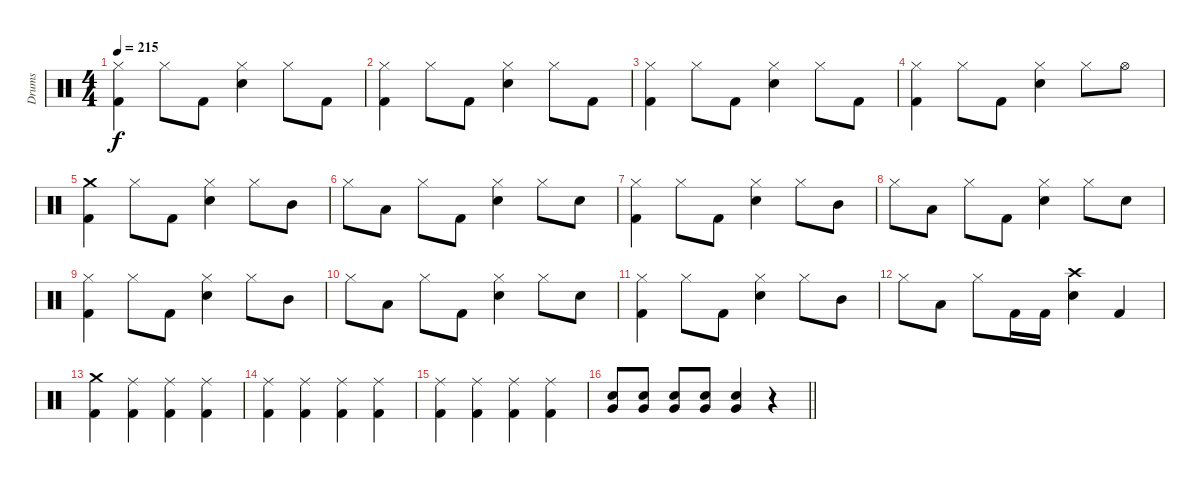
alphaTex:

\track ("Drums" "Drums") {instrument percussion}
\staff {score}
\articulation defaults
\ts (4 4)
\tempo 215
\clef neutral
\ks c
("Hi-Hat (closed)" "Kick (hit) 2").4{dy f} "Hi-Hat (closed)".8 "Kick (hit) 2".8 ("Hi-Hat (closed)" "Electric Snare (hit)").4 "Hi-Hat (closed)".8 "Kick (hit) 2".8 |
("Hi-Hat (closed)" "Kick (hit) 2").4 "Hi-Hat (closed)".8 "Kick (hit) 2".8 ("Hi-Hat (closed)" "Electric Snare (hit)").4 "Hi-Hat (closed)".8 "Kick (hit) 2".8 |
("Hi-Hat (closed)" "Kick (hit) 2").4 "Hi-Hat (closed)".8 "Kick (hit) 2".8 ("Hi-Hat (closed)" "Electric Snare (hit)").4 "Hi-Hat (closed)".8 "Kick (hit) 2".8 |
("Hi-Hat (closed)" "Kick (hit) 2").4 "Hi-Hat (closed)".8 "Kick (hit) 2".8 ("Hi-Hat (closed)" "Electric Snare (hit)").4 "Hi-Hat (closed)".8 "Hi-Hat (open)".8{volume 12 balance 8} |
("Crash medium (hit)" "Kick (hit) 2").4 "Hi-Hat (closed)".8 "Kick (hit) 2".8 ("Hi-Hat (closed)" "Electric Snare (hit)").4 "Hi-Hat (closed)".8 "Mid Tom (hit)".8 |
"Hi-Hat (closed)".8 "Low Tom (hit)".8 "Hi-Hat (closed)".8 "Kick (hit) 2".8 ("Hi-Hat (closed)" "Electric Snare (hit)").4 "Hi-Hat (closed)".8 "Electric Snare (hit)".8 |
("Hi-Hat (closed)" "Kick (hit) 2").4 "Hi-Hat (closed)".8 "Kick (hit) 2".8 ("Hi-Hat (closed)" "Electric Snare (hit)").4 "Hi-Hat (closed)".8 "Mid Tom (hit)".8 |
"Hi-Hat (closed)".8 "Low Tom (hit)".8 "Hi-Hat (closed)".8 "Kick (hit) 2".8 ("Hi-Hat (closed)" "Electric Snare (hit)").4 "Hi-Hat (closed)".8 "Electric Snare (hit)".8 |
("Hi-Hat (closed)" "Kick (hit) 2").4 "Hi-Hat (closed)".8 "Kick (hit) 2".8 ("Hi-Hat (closed)" "Electric Snare (hit)").4 "Hi-Hat (closed)".8 "Mid Tom (hit)".8 |
"Hi-Hat (closed)".8 "Low Tom (hit)".8 "Hi-Hat (closed)".8 "Kick (hit) 2".8 ("Hi-Hat (closed)" "Electric Snare (hit)").4 "Hi-Hat (closed)".8 "Electric Snare (hit)".8 |
("Hi-Hat (closed)" "Kick (hit) 2").4 "Hi-Hat (closed)".8 "Kick (hit) 2".8 ("Hi-Hat (closed)" "Electric Snare (hit)").4 "Hi-Hat (closed)".8 "Mid Tom (hit)".8 |
"Hi-Hat (closed)".8 "Low Tom (hit)".8 "Hi-Hat (closed)".8 "Kick (hit) 2".16 "Kick (hit) 2".16 ("Crash high (hit)" "Electric Snare (hit)").4 "Kick (hit) 2".4 |
("Crash medium (hit)" "Kick (hit) 2").4 ("Ride (middle)" "Kick (hit) 2").4 ("Ride (middle)" "Kick (hit) 2").4 ("Ride (middle)" "Kick (hit) 2").4 |
("Ride (middle)" "Kick (hit) 2").4 ("Ride (middle)" "Kick (hit) 2").4 ("Ride (middle)" "Kick (hit) 2").4 ("Ride (middle)" "Kick (hit) 2").4 |
("Ride (middle)" "Kick (hit) 2").4 ("Ride (middle)" "Kick (hit) 2").4 ("Ride (middle)" "Kick (hit) 2").4 ("Ride (middle)" "Kick (hit) 2").4 |
\barLineRight lightlight
("Very Low Tom (hit)" "Electric Snare (hit)").8 ("Very Low Tom (hit)" "Electric Snare (hit)").8 ("Very Low Tom (hit)" "Electric Snare (hit)").8 ("Very Low Tom (hit)" "Electric Snare (hit)").8 ("Very Low Tom (hit)" "Electric Snare (hit)").4 r.4
